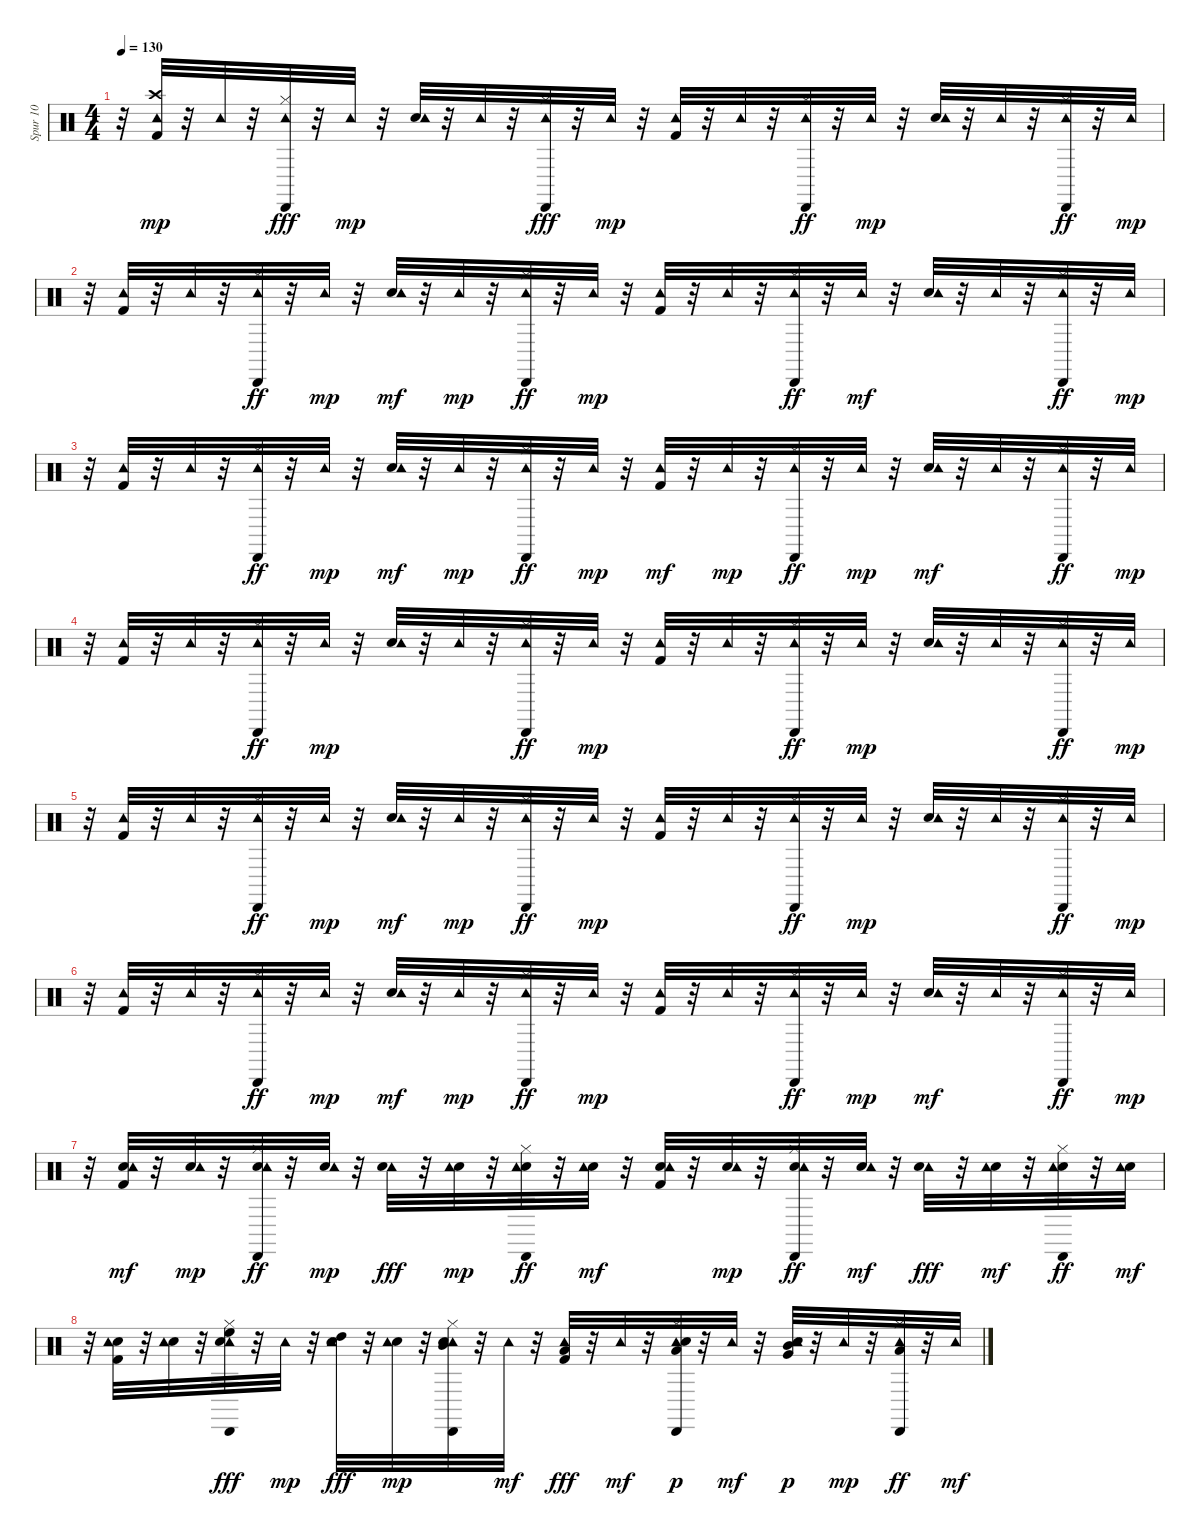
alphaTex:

\track ("Spur 10" "Spur 10") {instrument percussion}
\staff {score}
\articulation defaults
\ts (4 4)
\tempo 130
\clef neutral
\ks c
r.32{dy ff} ("Kick (hit) 2" "Tambourine (hit)" "Crash high (hit)").32{dy mp} r.32 "Tambourine (hit)".32 r.32 ("Hi-Hat (closed)" "Tambourine (hit)" "Cabasa (hit)").32{dy fff} r.32 "Tambourine (hit)".32{dy mp} r.32 ("Electric Snare (hit)" "Tambourine (hit)").32 r.32 "Tambourine (hit)".32 r.32 ("Hi-Hat (closed)" "Tambourine (hit)" "Cabasa (hit)").32{dy fff} r.32 "Tambourine (hit)".32{dy mp} r.32 ("Kick (hit) 2" "Tambourine (hit)").32 r.32 "Tambourine (hit)".32 r.32 ("Hi-Hat (closed)" "Tambourine (hit)" "Cabasa (hit)").32{dy ff} r.32 "Tambourine (hit)".32{dy mp} r.32 ("Electric Snare (hit)" "Tambourine (hit)").32 r.32 "Tambourine (hit)".32 r.32 ("Hi-Hat (closed)" "Tambourine (hit)" "Cabasa (hit)").32{dy ff} r.32 "Tambourine (hit)".32{dy mp} |
r.32 ("Kick (hit) 2" "Tambourine (hit)").32 r.32 "Tambourine (hit)".32 r.32 ("Hi-Hat (closed)" "Tambourine (hit)" "Cabasa (hit)").32{dy ff} r.32 "Tambourine (hit)".32{dy mp} r.32 ("Electric Snare (hit)" "Tambourine (hit)").32{dy mf} r.32 "Tambourine (hit)".32{dy mp} r.32 ("Hi-Hat (closed)" "Tambourine (hit)" "Cabasa (hit)").32{dy ff} r.32 "Tambourine (hit)".32{dy mp} r.32 ("Kick (hit) 2" "Tambourine (hit)").32 r.32 "Tambourine (hit)".32 r.32 ("Hi-Hat (closed)" "Tambourine (hit)" "Cabasa (hit)").32{dy ff} r.32 "Tambourine (hit)".32{dy mf} r.32 ("Electric Snare (hit)" "Tambourine (hit)").32 r.32 "Tambourine (hit)".32 r.32 ("Hi-Hat (closed)" "Tambourine (hit)" "Cabasa (hit)").32{dy ff} r.32 "Tambourine (hit)".32{dy mp} |
r.32 ("Kick (hit) 2" "Tambourine (hit)").32 r.32 "Tambourine (hit)".32 r.32 ("Hi-Hat (closed)" "Tambourine (hit)" "Cabasa (hit)").32{dy ff} r.32 "Tambourine (hit)".32{dy mp} r.32 ("Electric Snare (hit)" "Tambourine (hit)").32{dy mf} r.32 "Tambourine (hit)".32{dy mp} r.32 ("Hi-Hat (closed)" "Tambourine (hit)" "Cabasa (hit)").32{dy ff} r.32 "Tambourine (hit)".32{dy mp} r.32 ("Kick (hit) 2" "Tambourine (hit)").32{dy mf} r.32 "Tambourine (hit)".32{dy mp} r.32 ("Hi-Hat (closed)" "Tambourine (hit)" "Cabasa (hit)").32{dy ff} r.32 "Tambourine (hit)".32{dy mp} r.32 ("Electric Snare (hit)" "Tambourine (hit)").32{dy mf} r.32 "Tambourine (hit)".32 r.32 ("Hi-Hat (closed)" "Tambourine (hit)" "Cabasa (hit)").32{dy ff} r.32 "Tambourine (hit)".32{dy mp} |
r.32 ("Kick (hit) 2" "Tambourine (hit)").32 r.32 "Tambourine (hit)".32 r.32 ("Hi-Hat (closed)" "Tambourine (hit)" "Cabasa (hit)").32{dy ff} r.32 "Tambourine (hit)".32{dy mp} r.32 ("Electric Snare (hit)" "Tambourine (hit)").32 r.32 "Tambourine (hit)".32 r.32 ("Hi-Hat (closed)" "Tambourine (hit)" "Cabasa (hit)").32{dy ff} r.32 "Tambourine (hit)".32{dy mp} r.32 ("Kick (hit) 2" "Tambourine (hit)").32 r.32 "Tambourine (hit)".32 r.32 ("Hi-Hat (closed)" "Tambourine (hit)" "Cabasa (hit)").32{dy ff} r.32 "Tambourine (hit)".32{dy mp} r.32 ("Electric Snare (hit)" "Tambourine (hit)").32 r.32 "Tambourine (hit)".32 r.32 ("Hi-Hat (closed)" "Tambourine (hit)" "Cabasa (hit)").32{dy ff} r.32 "Tambourine (hit)".32{dy mp} |
r.32 ("Kick (hit) 2" "Tambourine (hit)").32 r.32 "Tambourine (hit)".32 r.32 ("Hi-Hat (closed)" "Tambourine (hit)" "Cabasa (hit)").32{dy ff} r.32 "Tambourine (hit)".32{dy mp} r.32 ("Electric Snare (hit)" "Tambourine (hit)").32{dy mf} r.32 "Tambourine (hit)".32{dy mp} r.32 ("Hi-Hat (closed)" "Tambourine (hit)" "Cabasa (hit)").32{dy ff} r.32 "Tambourine (hit)".32{dy mp} r.32 ("Kick (hit) 2" "Tambourine (hit)").32 r.32 "Tambourine (hit)".32 r.32 ("Hi-Hat (closed)" "Tambourine (hit)" "Cabasa (hit)").32{dy ff} r.32 "Tambourine (hit)".32{dy mp} r.32 ("Electric Snare (hit)" "Tambourine (hit)").32 r.32 "Tambourine (hit)".32 r.32 ("Hi-Hat (closed)" "Tambourine (hit)" "Cabasa (hit)").32{dy ff} r.32 "Tambourine (hit)".32{dy mp} |
r.32 ("Kick (hit) 2" "Tambourine (hit)").32 r.32 "Tambourine (hit)".32 r.32 ("Hi-Hat (closed)" "Tambourine (hit)" "Cabasa (hit)").32{dy ff} r.32 "Tambourine (hit)".32{dy mp} r.32 ("Electric Snare (hit)" "Tambourine (hit)").32{dy mf} r.32 "Tambourine (hit)".32{dy mp} r.32 ("Hi-Hat (closed)" "Tambourine (hit)" "Cabasa (hit)").32{dy ff} r.32 "Tambourine (hit)".32{dy mp} r.32 ("Kick (hit) 2" "Tambourine (hit)").32 r.32 "Tambourine (hit)".32 r.32 ("Hi-Hat (closed)" "Tambourine (hit)" "Cabasa (hit)").32{dy ff} r.32 "Tambourine (hit)".32{dy mp} r.32 ("Electric Snare (hit)" "Tambourine (hit)").32{dy mf} r.32 "Tambourine (hit)".32 r.32 ("Hi-Hat (closed)" "Tambourine (hit)" "Cabasa (hit)").32{dy ff} r.32 "Tambourine (hit)".32{dy mp} |
r.32 ("Kick (hit) 2" "Electric Snare (hit)" "Tambourine (hit)").32{dy mf} r.32 ("Electric Snare (hit)" "Tambourine (hit)").32{dy mp} r.32 ("Hi-Hat (closed)" "Electric Snare (hit)" "Tambourine (hit)" "Cabasa (hit)").32{dy ff} r.32 ("Electric Snare (hit)" "Tambourine (hit)").32{dy mp} r.32 ("Tambourine (hit)" "Electric Snare (hit)").32{dy fff} r.32 ("Electric Snare (hit)" "Tambourine (hit)").32{dy mp} r.32 ("Hi-Hat (closed)" "Electric Snare (hit)" "Tambourine (hit)" "Cabasa (hit)").32{dy ff} r.32 ("Electric Snare (hit)" "Tambourine (hit)").32{dy mf} r.32 ("Kick (hit) 2" "Electric Snare (hit)" "Tambourine (hit)").32 r.32 ("Electric Snare (hit)" "Tambourine (hit)").32{dy mp} r.32 ("Hi-Hat (closed)" "Electric Snare (hit)" "Tambourine (hit)" "Cabasa (hit)").32{dy ff} r.32 ("Electric Snare (hit)" "Tambourine (hit)").32{dy mf} r.32 ("Tambourine (hit)" "Electric Snare (hit)").32{dy fff} r.32 ("Electric Snare (hit)" "Tambourine (hit)").32{dy mf} r.32 ("Hi-Hat (closed)" "Electric Snare (hit)" "Tambourine (hit)" "Cabasa (hit)").32{dy ff} r.32 ("Electric Snare (hit)" "Tambourine (hit)").32{dy mf} |
r.32 ("Kick (hit) 2" "Electric Snare (hit)" "Tambourine (hit)").32 r.32 ("Electric Snare (hit)" "Tambourine (hit)").32 r.32 ("Hi-Hat (closed)" "Tambourine (hit)" "Electric Snare (hit)" "Cabasa (hit)" "High Floor Tom (hit)").32{dy fff} r.32 "Tambourine (hit)".32{dy mp} r.32 ("Tambourine (hit)" "Electric Snare (hit)" "High Tom (hit)").32{dy fff} r.32 ("Electric Snare (hit)" "Tambourine (hit)").32{dy mp} r.32 ("Hi-Hat (closed)" "Tambourine (hit)" "Electric Snare (hit)" "Cabasa (hit)" "Mid Tom (hit)").32 r.32 "Tambourine (hit)".32{dy mf} r.32 ("Kick (hit) 2" "Tambourine (hit)" "Low Tom (hit)").32{dy fff} r.32 "Tambourine (hit)".32{dy mf} r.32 ("Hi-Hat (closed)" "Tambourine (hit)" "Electric Snare (hit)" "Cabasa (hit)" "Low Tom (hit)").32{dy p} r.32 "Tambourine (hit)".32{dy mf} r.32 ("Electric Snare (hit)" "Tambourine (hit)" "Very Low Tom (hit)" "Mid Tom (hit)").32{dy p} r.32 "Tambourine (hit)".32{dy mp} r.32 ("Hi-Hat (closed)" "Tambourine (hit)" "Cabasa (hit)" "Low Floor Tom (hit)").32{dy ff} r.32 "Tambourine (hit)".32{dy mf}
